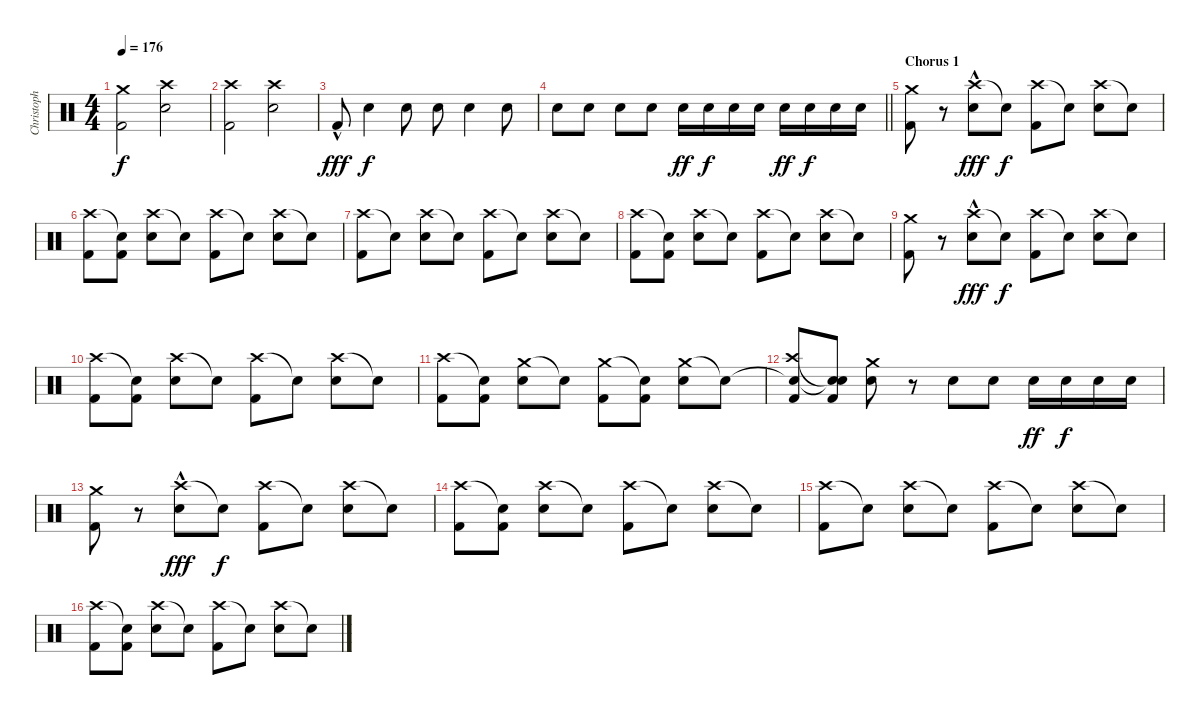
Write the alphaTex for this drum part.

\track ("Christoph" "Christoph") {instrument percussion}
\staff {score}
\articulation defaults
\ts (4 4)
\tempo 176
\clef neutral
\ks c
("Crash medium (hit)" "Kick (hit) 2").2{dy f} ("Crash high (hit)" "Snare (hit) 2").2 |
("Crash high (hit)" "Kick (hit) 2").2 ("Crash high (hit)" "Snare (hit) 2").2 |
"Kick (hit) 2"{hac}.8{dy fff} "Snare (hit) 2".4{dy f} "Snare (hit) 2".8 "Snare (hit) 2".8 "Snare (hit) 2".4 "Snare (hit) 2".8 |
\barLineRight lightlight "Snare (hit) 2".8 "Snare (hit) 2".8 "Snare (hit) 2".8 "Snare (hit) 2".8 "Snare (hit) 2".16{dy ff} "Snare (hit) 2".16{dy f} "Snare (hit) 2".16 "Snare (hit) 2".16 "Snare (hit) 2".16{dy ff} "Snare (hit) 2".16{dy f} "Snare (hit) 2".16 "Snare (hit) 2".16
|
\section ("" "Chorus 1")
("Crash medium (hit)" "Kick (hit) 2").8 r.8 ("Crash high (hit)"{hac} "Snare (hit) 2").8{dy fff} "Snare (hit)"{t}.8{dy f} ("Crash high (hit)" "Kick (hit) 2").8 "Snare (hit)"{t}.8 ("Crash high (hit)" "Snare (hit) 2").8 "Snare (hit)"{t}.8 |
("Crash high (hit)" "Kick (hit) 2").8 ("Snare (hit)"{t} "Kick (hit) 2").8 ("Crash high (hit)" "Snare (hit) 2").8 "Snare (hit)"{t}.8 ("Crash high (hit)" "Kick (hit) 2").8 "Snare (hit)"{t}.8 ("Crash high (hit)" "Snare (hit) 2").8 "Snare (hit)"{t}.8 |
("Crash high (hit)" "Kick (hit) 2").8 "Snare (hit)"{t}.8 ("Crash high (hit)" "Snare (hit) 2").8 "Snare (hit)"{t}.8 ("Crash high (hit)" "Kick (hit) 2").8 "Snare (hit)"{t}.8 ("Crash high (hit)" "Snare (hit) 2").8 "Snare (hit)"{t}.8 |
("Crash high (hit)" "Kick (hit) 2").8 ("Snare (hit)"{t} "Kick (hit) 2").8 ("Crash high (hit)" "Snare (hit) 2").8 "Snare (hit)"{t}.8 ("Crash high (hit)" "Kick (hit) 2").8 "Snare (hit)"{t}.8 ("Crash high (hit)" "Snare (hit) 2").8 "Snare (hit)"{t}.8 |
("Crash medium (hit)" "Kick (hit) 2").8 r.8 ("Crash high (hit)"{hac} "Snare (hit) 2").8{dy fff} "Snare (hit)"{t}.8{dy f} ("Crash high (hit)" "Kick (hit) 2").8 "Snare (hit)"{t}.8 ("Crash high (hit)" "Snare (hit) 2").8 "Snare (hit)"{t}.8 |
("Crash high (hit)" "Kick (hit) 2").8 ("Snare (hit)"{t} "Kick (hit) 2").8 ("Crash high (hit)" "Snare (hit) 2").8 "Snare (hit)"{t}.8 ("Crash high (hit)" "Kick (hit) 2").8 "Snare (hit)"{t}.8 ("Crash high (hit)" "Snare (hit) 2").8 "Snare (hit)"{t}.8 |
("Crash high (hit)" "Kick (hit) 2").8 ("Snare (hit)"{t} "Kick (hit) 2").8 ("Crash medium (hit)" "Snare (hit) 2").8 "Snare (hit)"{t}.8 ("Crash medium (hit)" "Kick (hit) 2").8 ("Snare (hit)"{t} "Kick (hit) 2").8 ("Crash medium (hit)" "Snare (hit) 2").8 "Snare (hit)"{t}.8 |
("Snare (hit)"{t} "Crash high (hit)" "Kick (hit) 2").8 ("Snare (hit)"{t} "Snare (hit)"{t} "Kick (hit) 2").8 ("Crash medium (hit)" "Snare (hit) 2").8 r.8 "Snare (hit) 2".8 "Snare (hit) 2".8 "Snare (hit) 2".16{dy ff} "Snare (hit) 2".16{dy f} "Snare (hit) 2".16 "Snare (hit) 2".16 |
("Crash medium (hit)" "Kick (hit) 2").8 r.8 ("Crash high (hit)"{hac} "Snare (hit) 2").8{dy fff} "Snare (hit)"{t}.8{dy f} ("Crash high (hit)" "Kick (hit) 2").8 "Snare (hit)"{t}.8 ("Crash high (hit)" "Snare (hit) 2").8 "Snare (hit)"{t}.8 |
("Crash high (hit)" "Kick (hit) 2").8 ("Snare (hit)"{t} "Kick (hit) 2").8 ("Crash high (hit)" "Snare (hit) 2").8 "Snare (hit)"{t}.8 ("Crash high (hit)" "Kick (hit) 2").8 "Snare (hit)"{t}.8 ("Crash high (hit)" "Snare (hit) 2").8 "Snare (hit)"{t}.8 |
("Crash high (hit)" "Kick (hit) 2").8 "Snare (hit)"{t}.8 ("Crash high (hit)" "Snare (hit) 2").8 "Snare (hit)"{t}.8 ("Crash high (hit)" "Kick (hit) 2").8 "Snare (hit)"{t}.8 ("Crash high (hit)" "Snare (hit) 2").8 "Snare (hit)"{t}.8 |
("Crash high (hit)" "Kick (hit) 2").8 ("Snare (hit)"{t} "Kick (hit) 2").8 ("Crash high (hit)" "Snare (hit) 2").8 "Snare (hit)"{t}.8 ("Crash high (hit)" "Kick (hit) 2").8 "Snare (hit)"{t}.8 ("Crash high (hit)" "Snare (hit) 2").8 "Snare (hit)"{t}.8
